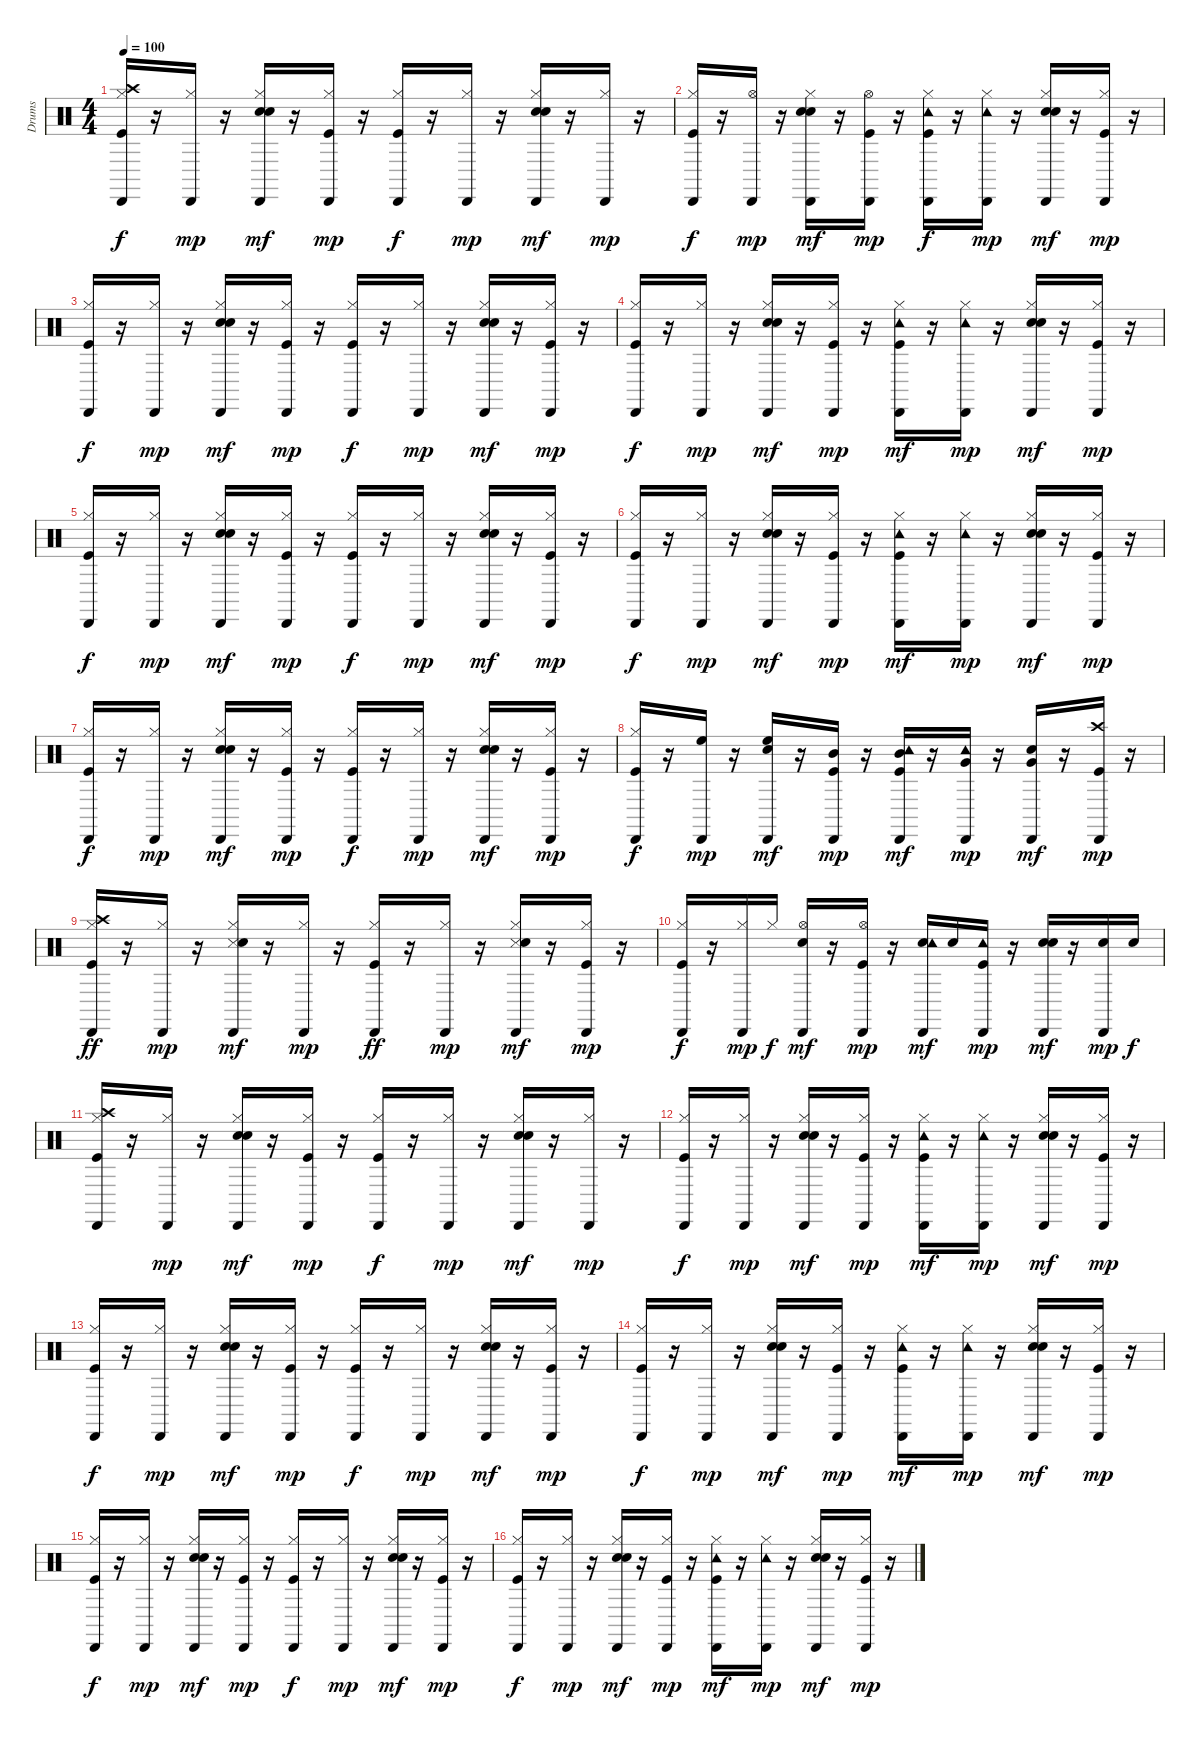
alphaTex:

\track ("Drums" "Drums") {instrument percussion}
\staff {score}
\articulation defaults
\ts (4 4)
\tempo 100
\clef neutral
\ks c
("Kick (hit)" "Hi-Hat (closed)" "Crash high (hit)" "Cabasa (hit)").16{dy f} r.16 ("Hi-Hat (closed)" "Cabasa (hit)").16{dy mp} r.16 ("Snare (hit) 2" "Hi-Hat (closed)" "Hand Clap (hit)" "Cabasa (hit)").16{dy mf} r.16 ("Kick (hit)" "Hi-Hat (closed)" "Cabasa (hit)").16{dy mp} r.16 ("Kick (hit)" "Hi-Hat (closed)" "Cabasa (hit)").16{dy f} r.16 ("Hi-Hat (closed)" "Cabasa (hit)").16{dy mp} r.16 ("Snare (hit) 2" "Hi-Hat (closed)" "Hand Clap (hit)" "Cabasa (hit)").16{dy mf} r.16 ("Hi-Hat (closed)" "Cabasa (hit)").16{dy mp} r.16 |
("Kick (hit)" "Hi-Hat (closed)" "Cabasa (hit)").16{dy f} r.16 ("Hi-Hat (open)" "Cabasa (hit)").16{dy mp} r.16 ("Snare (hit) 2" "Hi-Hat (closed)" "Hand Clap (hit)" "Cabasa (hit)").16{dy mf} r.16 ("Kick (hit)" "Hi-Hat (open)" "Cabasa (hit)").16{dy mp} r.16 ("Kick (hit)" "Hi-Hat (closed)" "Tambourine (hit)" "Cabasa (hit)").16{dy f} r.16 ("Hi-Hat (closed)" "Tambourine (hit)" "Cabasa (hit)").16{dy mp} r.16 ("Snare (hit) 2" "Hi-Hat (closed)" "Hand Clap (hit)" "Cabasa (hit)").16{dy mf} r.16 ("Kick (hit)" "Hi-Hat (closed)" "Cabasa (hit)").16{dy mp} r.16 |
("Kick (hit)" "Hi-Hat (closed)" "Cabasa (hit)").16{dy f} r.16 ("Hi-Hat (closed)" "Cabasa (hit)").16{dy mp} r.16 ("Snare (hit) 2" "Hi-Hat (closed)" "Hand Clap (hit)" "Cabasa (hit)").16{dy mf} r.16 ("Kick (hit)" "Hi-Hat (closed)" "Cabasa (hit)").16{dy mp} r.16 ("Kick (hit)" "Hi-Hat (closed)" "Cabasa (hit)").16{dy f} r.16 ("Hi-Hat (closed)" "Cabasa (hit)").16{dy mp} r.16 ("Snare (hit) 2" "Hi-Hat (closed)" "Hand Clap (hit)" "Cabasa (hit)").16{dy mf} r.16 ("Kick (hit)" "Hi-Hat (closed)" "Cabasa (hit)").16{dy mp} r.16 |
("Kick (hit)" "Hi-Hat (closed)" "Cabasa (hit)").16{dy f} r.16 ("Hi-Hat (closed)" "Cabasa (hit)").16{dy mp} r.16 ("Snare (hit) 2" "Hi-Hat (closed)" "Hand Clap (hit)" "Cabasa (hit)").16{dy mf} r.16 ("Kick (hit)" "Hi-Hat (closed)" "Cabasa (hit)").16{dy mp} r.16 ("Kick (hit)" "Hi-Hat (closed)" "Tambourine (hit)" "Cabasa (hit)").16{dy mf} r.16 ("Hi-Hat (closed)" "Tambourine (hit)" "Cabasa (hit)").16{dy mp} r.16 ("Snare (hit) 2" "Hi-Hat (closed)" "Hand Clap (hit)" "Cabasa (hit)").16{dy mf} r.16 ("Kick (hit)" "Hi-Hat (closed)" "Cabasa (hit)").16{dy mp} r.16 |
("Kick (hit)" "Hi-Hat (closed)" "Cabasa (hit)").16{dy f} r.16 ("Hi-Hat (closed)" "Cabasa (hit)").16{dy mp} r.16 ("Snare (hit) 2" "Hi-Hat (closed)" "Hand Clap (hit)" "Cabasa (hit)").16{dy mf} r.16 ("Kick (hit)" "Hi-Hat (closed)" "Cabasa (hit)").16{dy mp} r.16 ("Kick (hit)" "Hi-Hat (closed)" "Cabasa (hit)").16{dy f} r.16 ("Hi-Hat (closed)" "Cabasa (hit)").16{dy mp} r.16 ("Snare (hit) 2" "Hi-Hat (closed)" "Hand Clap (hit)" "Cabasa (hit)").16{dy mf} r.16 ("Kick (hit)" "Hi-Hat (closed)" "Cabasa (hit)").16{dy mp} r.16 |
("Kick (hit)" "Hi-Hat (closed)" "Cabasa (hit)").16{dy f} r.16 ("Hi-Hat (closed)" "Cabasa (hit)").16{dy mp} r.16 ("Snare (hit) 2" "Hi-Hat (closed)" "Hand Clap (hit)" "Cabasa (hit)").16{dy mf} r.16 ("Kick (hit)" "Hi-Hat (closed)" "Cabasa (hit)").16{dy mp} r.16 ("Kick (hit)" "Hi-Hat (closed)" "Tambourine (hit)" "Cabasa (hit)").16{dy mf} r.16 ("Hi-Hat (closed)" "Tambourine (hit)" "Cabasa (hit)").16{dy mp} r.16 ("Snare (hit) 2" "Hi-Hat (closed)" "Hand Clap (hit)" "Cabasa (hit)").16{dy mf} r.16 ("Kick (hit)" "Hi-Hat (closed)" "Cabasa (hit)").16{dy mp} r.16 |
("Kick (hit)" "Hi-Hat (closed)" "Cabasa (hit)").16{dy f} r.16 ("Hi-Hat (closed)" "Cabasa (hit)").16{dy mp} r.16 ("Snare (hit) 2" "Hi-Hat (closed)" "Hand Clap (hit)" "Cabasa (hit)").16{dy mf} r.16 ("Kick (hit)" "Hi-Hat (closed)" "Cabasa (hit)").16{dy mp} r.16 ("Kick (hit)" "Hi-Hat (closed)" "Cabasa (hit)").16{dy f} r.16 ("Hi-Hat (closed)" "Cabasa (hit)").16{dy mp} r.16 ("Snare (hit) 2" "Hi-Hat (closed)" "Hand Clap (hit)" "Cabasa (hit)").16{dy mf} r.16 ("Kick (hit)" "Hi-Hat (closed)" "Cabasa (hit)").16{dy mp} r.16 |
("Kick (hit)" "Hi-Hat (closed)" "Cabasa (hit)").16{dy f} r.16 ("High Floor Tom (hit)" "Cabasa (hit)").16{dy mp} r.16 ("High Floor Tom (hit)" "Hand Clap (hit)" "Cabasa (hit)").16{dy mf} r.16 ("Kick (hit)" "Mid Tom (hit)" "Cabasa (hit)").16{dy mp} r.16 ("Kick (hit)" "Mid Tom (hit)" "Tambourine (hit)" "Cabasa (hit)").16{dy mf} r.16 ("Very Low Tom (hit)" "Tambourine (hit)" "Cabasa (hit)").16{dy mp} r.16 ("Very Low Tom (hit)" "Hand Clap (hit)" "Cabasa (hit)").16{dy mf} r.16 ("Kick (hit)" "Crash high (hit)" "Cabasa (hit)").16{dy mp} r.16 |
("Kick (hit)" "Hi-Hat (closed)" "Crash high (hit)" "Cabasa (hit)").16{dy ff} r.16 ("Hi-Hat (closed)" "Cabasa (hit)").16{dy mp} r.16 ("Hi-Hat (closed)" "Snare (side stick) 3" "Hand Clap (hit)" "Cabasa (hit)").16{dy mf} r.16 ("Hi-Hat (closed)" "Cabasa (hit)").16{dy mp} r.16 ("Kick (hit)" "Hi-Hat (closed)" "Cabasa (hit)").16{dy ff} r.16 ("Hi-Hat (closed)" "Cabasa (hit)").16{dy mp} r.16 ("Hi-Hat (closed)" "Snare (side stick) 3" "Hand Clap (hit)" "Cabasa (hit)").16{dy mf} r.16 ("Kick (hit)" "Hi-Hat (closed)" "Cabasa (hit)").16{dy mp} r.16 |
("Kick (hit)" "Hi-Hat (closed)" "Cabasa (hit)").16{dy f} r.16 ("Hi-Hat (closed)" "Cabasa (hit)").16{dy mp} "Hi-Hat (closed)".16{dy f} ("Hi-Hat (open)" "Hand Clap (hit)" "Cabasa (hit)").16{dy mf} r.16 ("Kick (hit)" "Hi-Hat (open)" "Cabasa (hit)").16{dy mp} r.16 ("Snare (hit) 2" "Tambourine (hit)" "Cabasa (hit)").16{dy mf} "Snare (hit) 2".16 ("Kick (hit)" "Tambourine (hit)" "Cabasa (hit)").16{dy mp} r.16 ("Snare (hit) 2" "Hand Clap (hit)" "Cabasa (hit)").16{dy mf} r.16 ("Snare (hit) 2" "Cabasa (hit)").16{dy mp} "Snare (hit) 2".16{dy f} |
("Kick (hit)" "Hi-Hat (closed)" "Crash high (hit)" "Cabasa (hit)").16 r.16 ("Hi-Hat (closed)" "Cabasa (hit)").16{dy mp} r.16 ("Snare (hit) 2" "Hi-Hat (closed)" "Hand Clap (hit)" "Cabasa (hit)").16{dy mf} r.16 ("Kick (hit)" "Hi-Hat (closed)" "Cabasa (hit)").16{dy mp} r.16 ("Kick (hit)" "Hi-Hat (closed)" "Cabasa (hit)").16{dy f} r.16 ("Hi-Hat (closed)" "Cabasa (hit)").16{dy mp} r.16 ("Snare (hit) 2" "Hi-Hat (closed)" "Hand Clap (hit)" "Cabasa (hit)").16{dy mf} r.16 ("Hi-Hat (closed)" "Cabasa (hit)").16{dy mp} r.16 |
("Kick (hit)" "Hi-Hat (closed)" "Cabasa (hit)").16{dy f} r.16 ("Hi-Hat (closed)" "Cabasa (hit)").16{dy mp} r.16 ("Snare (hit) 2" "Hi-Hat (closed)" "Hand Clap (hit)" "Cabasa (hit)").16{dy mf} r.16 ("Kick (hit)" "Hi-Hat (closed)" "Cabasa (hit)").16{dy mp} r.16 ("Kick (hit)" "Hi-Hat (closed)" "Tambourine (hit)" "Cabasa (hit)").16{dy mf} r.16 ("Hi-Hat (closed)" "Tambourine (hit)" "Cabasa (hit)").16{dy mp} r.16 ("Snare (hit) 2" "Hi-Hat (closed)" "Hand Clap (hit)" "Cabasa (hit)").16{dy mf} r.16 ("Kick (hit)" "Hi-Hat (closed)" "Cabasa (hit)").16{dy mp} r.16 |
("Kick (hit)" "Hi-Hat (closed)" "Cabasa (hit)").16{dy f} r.16 ("Hi-Hat (closed)" "Cabasa (hit)").16{dy mp} r.16 ("Snare (hit) 2" "Hi-Hat (closed)" "Hand Clap (hit)" "Cabasa (hit)").16{dy mf} r.16 ("Kick (hit)" "Hi-Hat (closed)" "Cabasa (hit)").16{dy mp} r.16 ("Kick (hit)" "Hi-Hat (closed)" "Cabasa (hit)").16{dy f} r.16 ("Hi-Hat (closed)" "Cabasa (hit)").16{dy mp} r.16 ("Snare (hit) 2" "Hi-Hat (closed)" "Hand Clap (hit)" "Cabasa (hit)").16{dy mf} r.16 ("Kick (hit)" "Hi-Hat (closed)" "Cabasa (hit)").16{dy mp} r.16 |
("Kick (hit)" "Hi-Hat (closed)" "Cabasa (hit)").16{dy f} r.16 ("Hi-Hat (closed)" "Cabasa (hit)").16{dy mp} r.16 ("Snare (hit) 2" "Hi-Hat (closed)" "Hand Clap (hit)" "Cabasa (hit)").16{dy mf} r.16 ("Kick (hit)" "Hi-Hat (closed)" "Cabasa (hit)").16{dy mp} r.16 ("Kick (hit)" "Hi-Hat (closed)" "Tambourine (hit)" "Cabasa (hit)").16{dy mf} r.16 ("Hi-Hat (closed)" "Tambourine (hit)" "Cabasa (hit)").16{dy mp} r.16 ("Snare (hit) 2" "Hi-Hat (closed)" "Hand Clap (hit)" "Cabasa (hit)").16{dy mf} r.16 ("Kick (hit)" "Hi-Hat (closed)" "Cabasa (hit)").16{dy mp} r.16 |
("Kick (hit)" "Hi-Hat (closed)" "Cabasa (hit)").16{dy f} r.16 ("Hi-Hat (closed)" "Cabasa (hit)").16{dy mp} r.16 ("Snare (hit) 2" "Hi-Hat (closed)" "Hand Clap (hit)" "Cabasa (hit)").16{dy mf} r.16 ("Kick (hit)" "Hi-Hat (closed)" "Cabasa (hit)").16{dy mp} r.16 ("Kick (hit)" "Hi-Hat (closed)" "Cabasa (hit)").16{dy f} r.16 ("Hi-Hat (closed)" "Cabasa (hit)").16{dy mp} r.16 ("Snare (hit) 2" "Hi-Hat (closed)" "Hand Clap (hit)" "Cabasa (hit)").16{dy mf} r.16 ("Kick (hit)" "Hi-Hat (closed)" "Cabasa (hit)").16{dy mp} r.16 |
("Kick (hit)" "Hi-Hat (closed)" "Cabasa (hit)").16{dy f} r.16 ("Hi-Hat (closed)" "Cabasa (hit)").16{dy mp} r.16 ("Snare (hit) 2" "Hi-Hat (closed)" "Hand Clap (hit)" "Cabasa (hit)").16{dy mf} r.16 ("Kick (hit)" "Hi-Hat (closed)" "Cabasa (hit)").16{dy mp} r.16 ("Kick (hit)" "Hi-Hat (closed)" "Tambourine (hit)" "Cabasa (hit)").16{dy mf} r.16 ("Hi-Hat (closed)" "Tambourine (hit)" "Cabasa (hit)").16{dy mp} r.16 ("Snare (hit) 2" "Hi-Hat (closed)" "Hand Clap (hit)" "Cabasa (hit)").16{dy mf} r.16 ("Kick (hit)" "Hi-Hat (closed)" "Cabasa (hit)").16{dy mp} r.16
